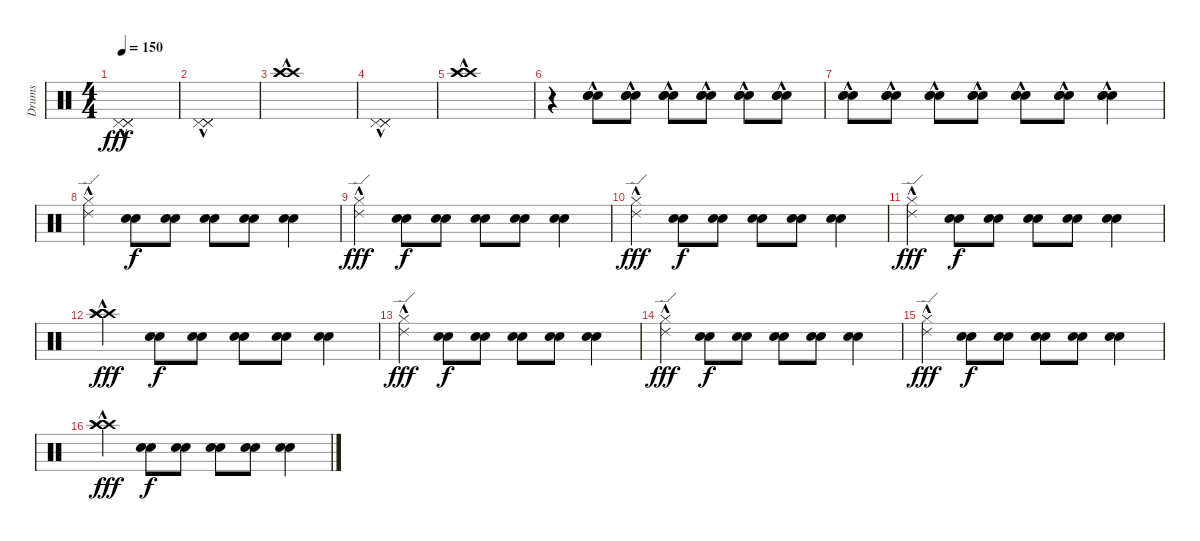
\track ("Drums" "Drums") {instrument percussion}
\staff {score}
\articulation defaults
\ts (4 4)
\tempo 150
\clef neutral
\ks c
("Pedal Hi-Hat (hit)"{hac} "Pedal Hi-Hat (hit)"{hac} "Pedal Hi-Hat (hit)"{hac}).1{dy fff} |
("Pedal Hi-Hat (hit)"{hac} "Pedal Hi-Hat (hit)"{hac} "Pedal Hi-Hat (hit)"{hac}).1 |
("Crash high (hit)"{hac} "Crash high (hit)"{hac} "Crash high (hit)"{hac}).1 |
("Pedal Hi-Hat (hit)" "Pedal Hi-Hat (hit)"{hac} "Pedal Hi-Hat (hit)"{hac}).1 |
("Crash high (hit)"{hac} "Crash high (hit)"{hac} "Crash high (hit)"{hac}).1 |
r.4 ("Electric Snare (hit)"{hac} "Electric Snare (hit)"{hac} "Electric Snare (hit)"{hac}).8 ("Electric Snare (hit)"{hac} "Electric Snare (hit)"{hac} "Electric Snare (hit)"{hac}).8 ("Electric Snare (hit)"{hac} "Electric Snare (hit)"{hac} "Electric Snare (hit)"{hac}).8 ("Electric Snare (hit)"{hac} "Electric Snare (hit)"{hac} "Electric Snare (hit)"{hac}).8 ("Electric Snare (hit)"{hac} "Electric Snare (hit)"{hac} "Electric Snare (hit)"{hac}).8 ("Electric Snare (hit)"{hac} "Electric Snare (hit)"{hac} "Electric Snare (hit)"{hac}).8 |
("Electric Snare (hit)"{hac} "Electric Snare (hit)"{hac} "Electric Snare (hit)"{hac}).8 ("Electric Snare (hit)"{hac} "Electric Snare (hit)"{hac} "Electric Snare (hit)"{hac}).8 ("Electric Snare (hit)"{hac} "Electric Snare (hit)"{hac} "Electric Snare (hit)"{hac}).8 ("Electric Snare (hit)"{hac} "Electric Snare (hit)"{hac} "Electric Snare (hit)"{hac}).8 ("Electric Snare (hit)"{hac} "Electric Snare (hit)"{hac} "Electric Snare (hit)"{hac}).8 ("Electric Snare (hit)"{hac} "Electric Snare (hit)"{hac} "Electric Snare (hit)"{hac}).8 ("Electric Snare (hit)"{hac} "Electric Snare (hit)"{hac} "Electric Snare (hit)"{hac}).4 |
("Hi-Hat (closed)" "Ride (edge) 2"{hac}).4 ("Electric Snare (hit)" "Electric Snare (hit)").8{dy f} ("Electric Snare (hit)" "Electric Snare (hit)").8 ("Electric Snare (hit)" "Electric Snare (hit)").8 ("Electric Snare (hit)" "Electric Snare (hit)").8 ("Electric Snare (hit)" "Electric Snare (hit)").4 |
("Hi-Hat (closed)" "Ride (edge) 2"{hac}).4{dy fff} ("Electric Snare (hit)" "Electric Snare (hit)").8{dy f} ("Electric Snare (hit)" "Electric Snare (hit)").8 ("Electric Snare (hit)" "Electric Snare (hit)").8 ("Electric Snare (hit)" "Electric Snare (hit)").8 ("Electric Snare (hit)" "Electric Snare (hit)").4 |
("Hi-Hat (closed)" "Ride (edge) 2"{hac}).4{dy fff} ("Electric Snare (hit)" "Electric Snare (hit)").8{dy f} ("Electric Snare (hit)" "Electric Snare (hit)").8 ("Electric Snare (hit)" "Electric Snare (hit)").8 ("Electric Snare (hit)" "Electric Snare (hit)").8 ("Electric Snare (hit)" "Electric Snare (hit)").4 |
("Hi-Hat (closed)" "Ride (edge) 2"{hac}).4{dy fff} ("Electric Snare (hit)" "Electric Snare (hit)").8{dy f} ("Electric Snare (hit)" "Electric Snare (hit)").8 ("Electric Snare (hit)" "Electric Snare (hit)").8 ("Electric Snare (hit)" "Electric Snare (hit)").8 ("Electric Snare (hit)" "Electric Snare (hit)").4 |
("Crash high (hit)"{hac} "Crash high (hit)"{hac} "Crash high (hit)"{hac}).4{dy fff} ("Electric Snare (hit)" "Electric Snare (hit)").8{dy f} ("Electric Snare (hit)" "Electric Snare (hit)").8 ("Electric Snare (hit)" "Electric Snare (hit)").8 ("Electric Snare (hit)" "Electric Snare (hit)").8 ("Electric Snare (hit)" "Electric Snare (hit)").4 |
("Hi-Hat (closed)" "Ride (edge) 2"{hac}).4{dy fff} ("Electric Snare (hit)" "Electric Snare (hit)").8{dy f} ("Electric Snare (hit)" "Electric Snare (hit)").8 ("Electric Snare (hit)" "Electric Snare (hit)").8 ("Electric Snare (hit)" "Electric Snare (hit)").8 ("Electric Snare (hit)" "Electric Snare (hit)").4 |
("Hi-Hat (closed)" "Ride (edge) 2"{hac}).4{dy fff} ("Electric Snare (hit)" "Electric Snare (hit)").8{dy f} ("Electric Snare (hit)" "Electric Snare (hit)").8 ("Electric Snare (hit)" "Electric Snare (hit)").8 ("Electric Snare (hit)" "Electric Snare (hit)").8 ("Electric Snare (hit)" "Electric Snare (hit)").4 |
("Hi-Hat (closed)" "Ride (edge) 2"{hac}).4{dy fff} ("Electric Snare (hit)" "Electric Snare (hit)").8{dy f} ("Electric Snare (hit)" "Electric Snare (hit)").8 ("Electric Snare (hit)" "Electric Snare (hit)").8 ("Electric Snare (hit)" "Electric Snare (hit)").8 ("Electric Snare (hit)" "Electric Snare (hit)").4 |
("Crash high (hit)"{hac} "Crash high (hit)"{hac} "Crash high (hit)"{hac}).4{dy fff} ("Electric Snare (hit)" "Electric Snare (hit)").8{dy f} ("Electric Snare (hit)" "Electric Snare (hit)").8 ("Electric Snare (hit)" "Electric Snare (hit)").8 ("Electric Snare (hit)" "Electric Snare (hit)").8 ("Electric Snare (hit)" "Electric Snare (hit)").4
